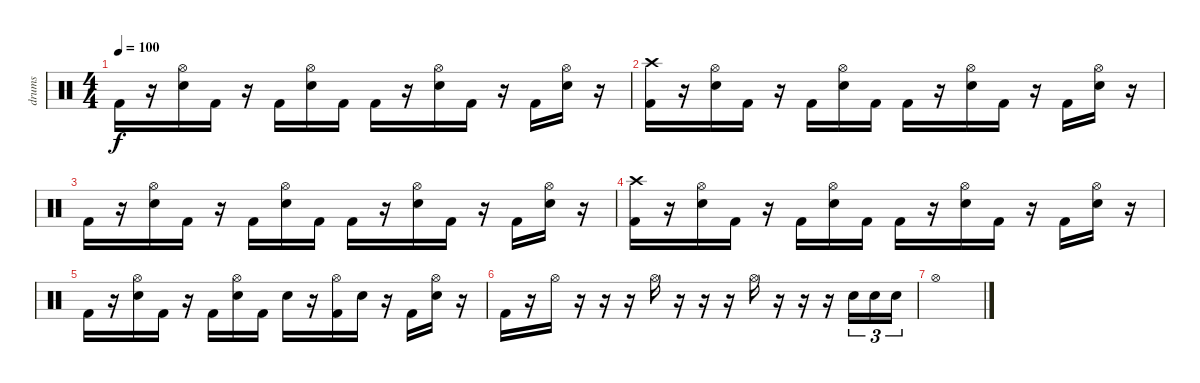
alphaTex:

\track ("drums" "drums") {instrument percussion}
\staff {score}
\articulation defaults
\ts (4 4)
\tempo 100
\clef neutral
\ks c "Kick (hit) 2".16{dy f}
r.16 ("Hi-Hat (open)" "Electric Snare (hit)").16 "Kick (hit) 2".16 r.16 "Kick (hit) 2".16 ("Hi-Hat (open)" "Electric Snare (hit)").16 "Kick (hit) 2".16 "Kick (hit) 2".16 r.16 ("Hi-Hat (open)" "Electric Snare (hit)").16 "Kick (hit) 2".16 r.16 "Kick (hit) 2".16 ("Hi-Hat (open)" "Electric Snare (hit)").16 r.16 |
("Crash high (hit)" "Kick (hit) 2").16 r.16 ("Hi-Hat (open)" "Electric Snare (hit)").16 "Kick (hit) 2".16 r.16 "Kick (hit) 2".16 ("Hi-Hat (open)" "Electric Snare (hit)").16 "Kick (hit) 2".16 "Kick (hit) 2".16 r.16 ("Hi-Hat (open)" "Electric Snare (hit)").16 "Kick (hit) 2".16 r.16 "Kick (hit) 2".16 ("Hi-Hat (open)" "Electric Snare (hit)").16 r.16 |
"Kick (hit) 2".16 r.16 ("Hi-Hat (open)" "Electric Snare (hit)").16 "Kick (hit) 2".16 r.16 "Kick (hit) 2".16 ("Hi-Hat (open)" "Electric Snare (hit)").16 "Kick (hit) 2".16 "Kick (hit) 2".16 r.16 ("Hi-Hat (open)" "Electric Snare (hit)").16 "Kick (hit) 2".16 r.16 "Kick (hit) 2".16 ("Hi-Hat (open)" "Electric Snare (hit)").16 r.16 |
("Crash high (hit)" "Kick (hit) 2").16 r.16 ("Hi-Hat (open)" "Electric Snare (hit)").16 "Kick (hit) 2".16 r.16 "Kick (hit) 2".16 ("Hi-Hat (open)" "Electric Snare (hit)").16 "Kick (hit) 2".16 "Kick (hit) 2".16 r.16 ("Hi-Hat (open)" "Electric Snare (hit)").16 "Kick (hit) 2".16 r.16 "Kick (hit) 2".16 ("Hi-Hat (open)" "Electric Snare (hit)").16 r.16 |
"Kick (hit) 2".16 r.16 ("Hi-Hat (open)" "Electric Snare (hit)").16 "Kick (hit) 2".16 r.16 "Kick (hit) 2".16 ("Hi-Hat (open)" "Electric Snare (hit)").16 "Kick (hit) 2".16 "Electric Snare (hit)".16 r.16 ("Hi-Hat (open)" "Kick (hit) 2").16 "Electric Snare (hit)".16 r.16 "Kick (hit) 2".16 ("Hi-Hat (open)" "Electric Snare (hit)").16 r.16 |
"Kick (hit) 2".16 r.16 "Hi-Hat (open)".16 r.16 r.16 r.16 "Hi-Hat (open)".16 r.16 r.16 r.16 "Hi-Hat (open)".16 r.16 r.16 r.16 "Electric Snare (hit)".16{tu (3 2)} "Electric Snare (hit)".16{tu (3 2)} "Electric Snare (hit)".16{tu (3 2)} |
"Hi-Hat (open)".1
